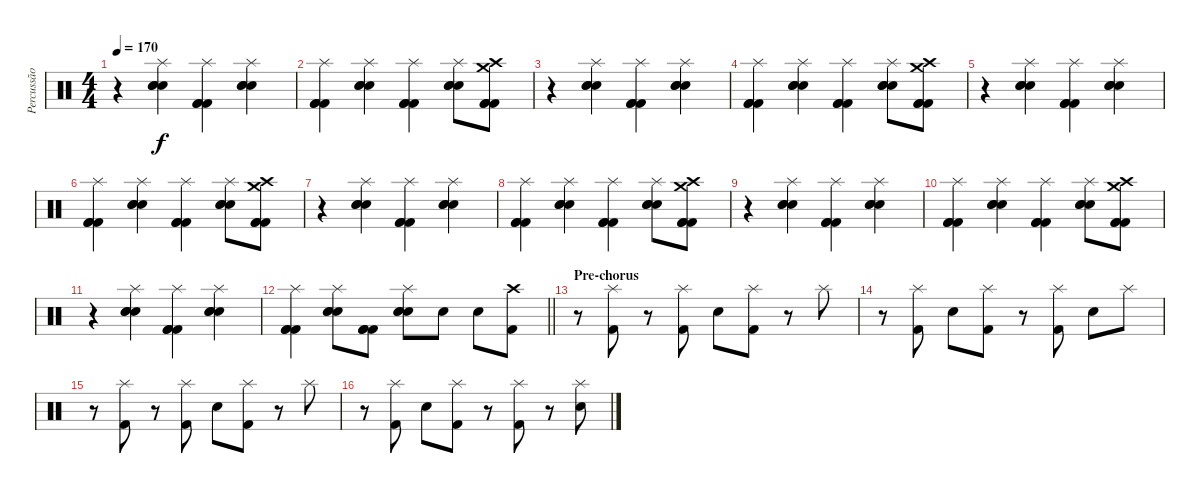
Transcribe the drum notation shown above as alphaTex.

\track ("Percussão" "Percussão") {instrument percussion}
\staff {score}
\articulation defaults
\ts (4 4)
\tempo 170
\clef neutral
\ks c
r.4{dy f} ("Splash (hit)" "Electric Snare (hit)" "Electric Snare (hit)" "Electric Snare (hit)").4 ("Splash (hit)" "Kick (hit) 2" "Kick (hit) 2" "Kick (hit) 2").4 ("Splash (hit)" "Electric Snare (hit)" "Electric Snare (hit)" "Electric Snare (hit)").4 |
("Splash (hit)" "Kick (hit) 2" "Kick (hit) 2" "Kick (hit) 2").4 ("Splash (hit)" "Electric Snare (hit)" "Electric Snare (hit)" "Electric Snare (hit)").4 ("Splash (hit)" "Kick (hit) 2" "Kick (hit) 2" "Kick (hit) 2").4 ("Splash (hit)" "Electric Snare (hit)" "Electric Snare (hit)" "Electric Snare (hit)").8 ("Crash high (hit)" "Crash medium (hit)" "Kick (hit) 2" "Kick (hit) 2" "Kick (hit) 2").8 |
r.4 ("Splash (hit)" "Electric Snare (hit)" "Electric Snare (hit)" "Electric Snare (hit)").4 ("Splash (hit)" "Kick (hit) 2" "Kick (hit) 2" "Kick (hit) 2").4 ("Splash (hit)" "Electric Snare (hit)" "Electric Snare (hit)" "Electric Snare (hit)").4 |
("Splash (hit)" "Kick (hit) 2" "Kick (hit) 2" "Kick (hit) 2").4 ("Splash (hit)" "Electric Snare (hit)" "Electric Snare (hit)" "Electric Snare (hit)").4 ("Splash (hit)" "Kick (hit) 2" "Kick (hit) 2" "Kick (hit) 2").4 ("Splash (hit)" "Electric Snare (hit)" "Electric Snare (hit)" "Electric Snare (hit)").8 ("Crash high (hit)" "Crash medium (hit)" "Kick (hit) 2" "Kick (hit) 2" "Kick (hit) 2").8 |
r.4 ("Splash (hit)" "Electric Snare (hit)" "Electric Snare (hit)" "Electric Snare (hit)").4 ("Splash (hit)" "Kick (hit) 2" "Kick (hit) 2" "Kick (hit) 2").4 ("Splash (hit)" "Electric Snare (hit)" "Electric Snare (hit)" "Electric Snare (hit)").4 |
("Splash (hit)" "Kick (hit) 2" "Kick (hit) 2" "Kick (hit) 2").4 ("Splash (hit)" "Electric Snare (hit)" "Electric Snare (hit)" "Electric Snare (hit)").4 ("Splash (hit)" "Kick (hit) 2" "Kick (hit) 2" "Kick (hit) 2").4 ("Splash (hit)" "Electric Snare (hit)" "Electric Snare (hit)" "Electric Snare (hit)").8 ("Crash high (hit)" "Crash medium (hit)" "Kick (hit) 2" "Kick (hit) 2" "Kick (hit) 2").8 |
r.4 ("Splash (hit)" "Electric Snare (hit)" "Electric Snare (hit)" "Electric Snare (hit)").4 ("Splash (hit)" "Kick (hit) 2" "Kick (hit) 2" "Kick (hit) 2").4 ("Splash (hit)" "Electric Snare (hit)" "Electric Snare (hit)" "Electric Snare (hit)").4 |
("Splash (hit)" "Kick (hit) 2" "Kick (hit) 2" "Kick (hit) 2").4 ("Splash (hit)" "Electric Snare (hit)" "Electric Snare (hit)" "Electric Snare (hit)").4 ("Splash (hit)" "Kick (hit) 2" "Kick (hit) 2" "Kick (hit) 2").4 ("Splash (hit)" "Electric Snare (hit)" "Electric Snare (hit)" "Electric Snare (hit)").8 ("Crash high (hit)" "Crash medium (hit)" "Kick (hit) 2" "Kick (hit) 2" "Kick (hit) 2").8 |
r.4 ("Splash (hit)" "Electric Snare (hit)" "Electric Snare (hit)" "Electric Snare (hit)").4 ("Splash (hit)" "Kick (hit) 2" "Kick (hit) 2" "Kick (hit) 2").4 ("Splash (hit)" "Electric Snare (hit)" "Electric Snare (hit)" "Electric Snare (hit)").4 |
("Splash (hit)" "Kick (hit) 2" "Kick (hit) 2" "Kick (hit) 2").4 ("Splash (hit)" "Electric Snare (hit)" "Electric Snare (hit)" "Electric Snare (hit)").4 ("Splash (hit)" "Kick (hit) 2" "Kick (hit) 2" "Kick (hit) 2").4 ("Splash (hit)" "Electric Snare (hit)" "Electric Snare (hit)" "Electric Snare (hit)").8 ("Crash high (hit)" "Crash medium (hit)" "Kick (hit) 2" "Kick (hit) 2" "Kick (hit) 2").8 |
r.4 ("Splash (hit)" "Electric Snare (hit)" "Electric Snare (hit)" "Electric Snare (hit)").4 ("Splash (hit)" "Kick (hit) 2" "Kick (hit) 2" "Kick (hit) 2").4 ("Splash (hit)" "Electric Snare (hit)" "Electric Snare (hit)" "Electric Snare (hit)").4 |
\barLineRight lightlight
("Splash (hit)" "Kick (hit) 2" "Kick (hit) 2" "Kick (hit) 2").4 ("Splash (hit)" "Electric Snare (hit)" "Electric Snare (hit)" "Electric Snare (hit)").8 ("Kick (hit) 2" "Kick (hit) 2" "Kick (hit) 2").8 ("Splash (hit)" "Electric Snare (hit)" "Electric Snare (hit)" "Electric Snare (hit)").8 "Electric Snare (hit)".8 "Electric Snare (hit)".8 ("Crash high (hit)" "Kick (hit) 2").8 |
\section ("" "Pre-chorus")
r.8 ("Splash (hit)" "Kick (hit) 2").8 r.8 ("Splash (hit)" "Kick (hit) 2").8 "Electric Snare (hit)".8 ("Splash (hit)" "Kick (hit) 2").8 r.8 "Splash (hit)".8 |
r.8 ("Splash (hit)" "Kick (hit) 2").8 "Electric Snare (hit)".8 ("Splash (hit)" "Kick (hit) 2").8 r.8 ("Splash (hit)" "Kick (hit) 2").8 "Electric Snare (hit)".8 "Splash (hit)".8 |
r.8 ("Splash (hit)" "Kick (hit) 2").8 r.8 ("Splash (hit)" "Kick (hit) 2").8 "Electric Snare (hit)".8 ("Splash (hit)" "Kick (hit) 2").8 r.8 "Splash (hit)".8 |
r.8 ("Splash (hit)" "Kick (hit) 2").8 "Electric Snare (hit)".8 ("Splash (hit)" "Kick (hit) 2").8 r.8 ("Splash (hit)" "Kick (hit) 2").8 r.8 ("Splash (hit)" "Electric Snare (hit)").8
